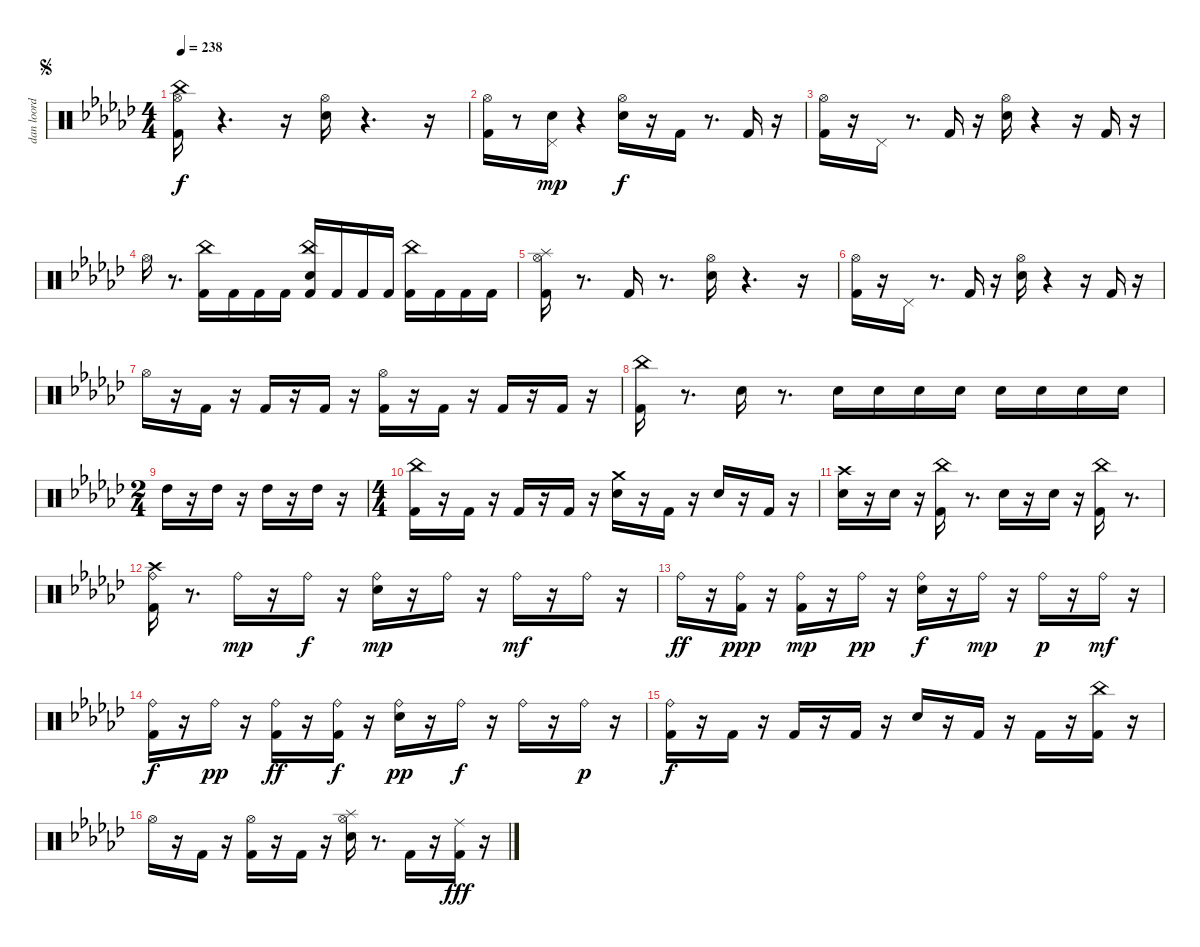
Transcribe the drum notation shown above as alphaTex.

\track ("dan loord foord" "dan loord ") {instrument percussion}
\staff {score}
\articulation defaults
\ts (4 4)
\jump segno
\tempo 238
\clef neutral
\ks gb
("Kick (hit) 2" "Hi-Hat (open)" "China (hit)").16{dy f} r.4{d} r.16 ("Snare (hit) 2" "Hi-Hat (open)").16 r.4{d} r.16 |
("Kick (hit) 2" "Hi-Hat (open)").16 r.8 ("Snare (hit) 2" "Pedal Hi-Hat (hit)").16{dy mp} r.4 ("Snare (hit) 2" "Hi-Hat (open)").16{dy f} r.16 "Kick (hit) 2".16 r.8{d} "Kick (hit) 2".16 r.16 |
("Kick (hit) 2" "Hi-Hat (open)").16 r.16 "Pedal Hi-Hat (hit)".16 r.8{d} "Kick (hit) 2".16 r.16 ("Snare (hit) 2" "Hi-Hat (open)").16 r.4 r.16 "Kick (hit) 2".16 r.16 |
"Hi-Hat (open)".16 r.8{d} ("Kick (hit) 2" "China (hit)").16 "Kick (hit) 2".16 "Kick (hit) 2".16 "Kick (hit) 2".16 ("Kick (hit) 2" "Snare (hit) 2" "China (hit)").16 "Kick (hit) 2".16 "Kick (hit) 2".16 "Kick (hit) 2".16 ("Kick (hit) 2" "China (hit)").16 "Kick (hit) 2".16 "Kick (hit) 2".16 "Kick (hit) 2".16 |
("Kick (hit) 2" "Hi-Hat (open)" "Splash (hit)").16 r.8{d} "Kick (hit) 2".16 r.8{d} ("Snare (hit) 2" "Hi-Hat (open)").16 r.4{d} r.16 |
("Kick (hit) 2" "Hi-Hat (open)").16 r.16 "Pedal Hi-Hat (hit)".16 r.8{d} "Kick (hit) 2".16 r.16 ("Snare (hit) 2" "Hi-Hat (open)").16 r.4 r.16 "Kick (hit) 2".16 r.16 |
"Hi-Hat (open)".16 r.16 "Kick (hit) 2".16 r.16 "Kick (hit) 2".16 r.16 "Kick (hit) 2".16 r.16 ("Kick (hit) 2" "Hi-Hat (open)").16 r.16 "Kick (hit) 2".16 r.16 "Kick (hit) 2".16 r.16 "Kick (hit) 2".16 r.16 |
("Kick (hit) 2" "China (hit)").16 r.8{d} "Snare (hit) 2".16 r.8{d} "Snare (hit) 2".16 "Snare (hit) 2".16 "Snare (hit) 2".16 "Snare (hit) 2".16 "Snare (hit) 2".16 "Snare (hit) 2".16 "Snare (hit) 2".16 "Snare (hit) 2".16 |
\ts (2 4)
"High Tom (hit)".16 r.16 "High Tom (hit)".16 r.16 "High Tom (hit)".16 r.16 "High Tom (hit)".16 r.16 |
\ts (4 4)
("Kick (hit) 2" "China (hit)").16 r.16 "Kick (hit) 2".16 r.16 "Kick (hit) 2".16 r.16 "Kick (hit) 2".16 r.16 ("Snare (hit) 2" "Crash medium (hit)").16 r.16 "Kick (hit) 2".16 r.16 "Snare (hit) 2".16 r.16 "Kick (hit) 2".16 r.16 |
("Snare (hit) 2" "Crash high (hit)").16 r.16 "Snare (hit) 2".16 r.16 ("Kick (hit) 2" "China (hit)").16 r.8{d} "Snare (hit) 2".16 r.16 "Snare (hit) 2".16 r.16 ("Kick (hit) 2" "China (hit)").16 r.8{d} |
("Kick (hit) 2" "Crash high (hit)" "Ride (bell)").16 r.8{d} "Ride (bell)".16{dy mp} r.16 "Ride (bell)".16{dy f} r.16 ("Snare (hit) 2" "Ride (bell)").16{dy mp} r.16 "Ride (bell)".16 r.16 "Ride (bell)".16{dy mf} r.16 "Ride (bell)".16 r.16 |
"Ride (bell)".16{dy ff} r.16 ("Kick (hit) 2" "Ride (bell)").16{dy ppp} r.16 ("Kick (hit) 2" "Ride (bell)").16{dy mp} r.16 "Ride (bell)".16{dy pp} r.16 ("Snare (hit) 2" "Ride (bell)").16{dy f} r.16 "Ride (bell)".16{dy mp} r.16 "Ride (bell)".16{dy p} r.16 "Ride (bell)".16{dy mf} r.16 |
("Kick (hit) 2" "Ride (bell)").16{dy f} r.16 "Ride (bell)".16{dy pp} r.16 ("Kick (hit) 2" "Ride (bell)").16{dy ff} r.16 ("Kick (hit) 2" "Ride (bell)").16{dy f} r.16 ("Snare (hit) 2" "Ride (bell)").16{dy pp} r.16 "Ride (bell)".16{dy f} r.16 "Ride (bell)".16 r.16 "Ride (bell)".16{dy p} r.16 |
("Kick (hit) 2" "Ride (bell)").16{dy f} r.16 "Kick (hit) 2".16 r.16 "Kick (hit) 2".16 r.16 "Kick (hit) 2".16 r.16 "Snare (hit) 2".16 r.16 "Kick (hit) 2".16 r.16 "Kick (hit) 2".16 r.16 ("Kick (hit) 2" "China (hit)").16 r.16 |
"Hi-Hat (open)".16 r.16 "Kick (hit) 2".16 r.16 ("Kick (hit) 2" "Hi-Hat (open)").16 r.16 "Kick (hit) 2".16 r.16 ("Snare (hit) 2" "Hi-Hat (open)" "Splash (hit)").16 r.8{d} "Kick (hit) 2".16 r.16 ("Kick (hit) 2" "Ride (middle)").16{dy fff} r.16
